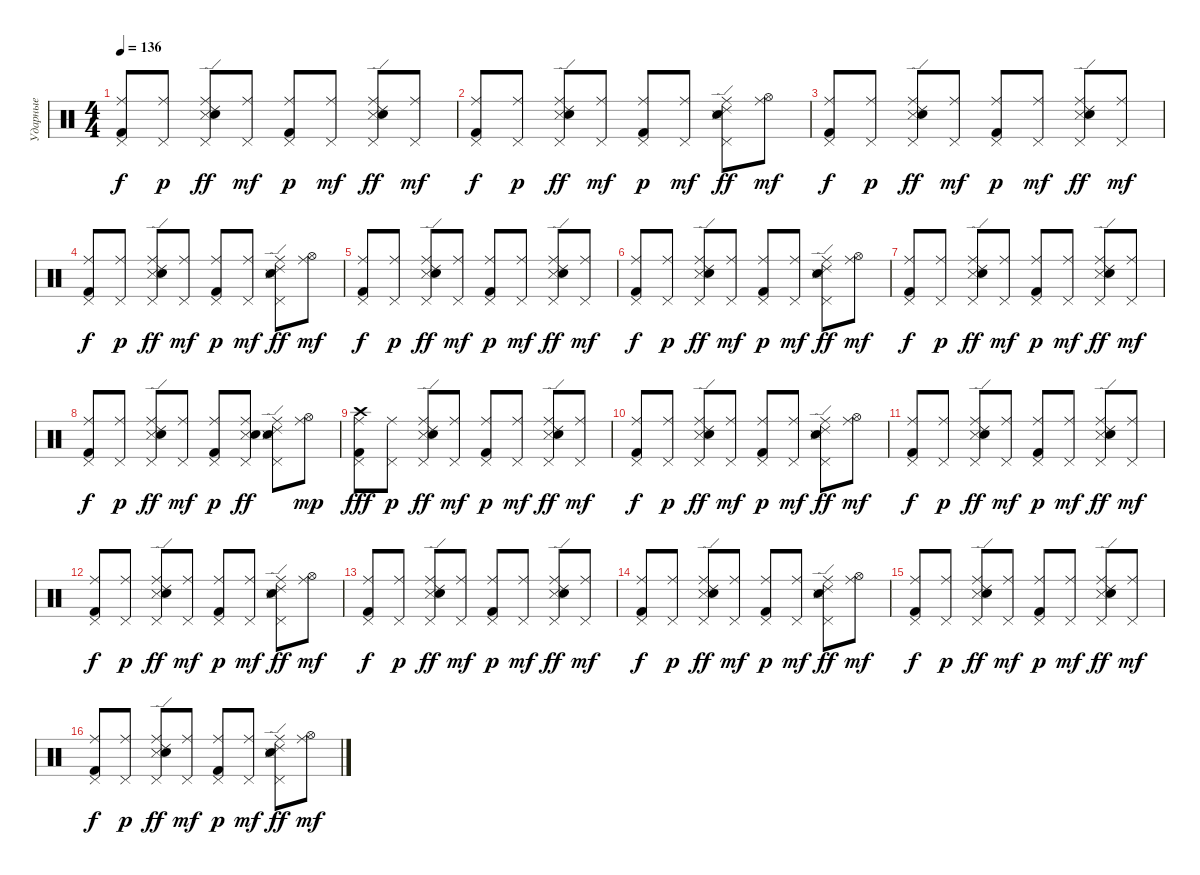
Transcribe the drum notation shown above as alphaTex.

\track ("Ударные" "Ударные") {instrument percussion}
\staff {score}
\articulation defaults
\ts (4 4)
\tempo 136
\clef neutral
\ks c
("Kick (hit) 2" "Ride (middle)" "Pedal Hi-Hat (hit)").8{dy f} ("Ride (middle)" "Pedal Hi-Hat (hit)").8{dy p} ("Ride (edge) 2" "Ride (middle)" "Pedal Hi-Hat (hit)" "Snare (side stick) 3" "Electric Snare (hit)").8{dy ff} ("Ride (middle)" "Pedal Hi-Hat (hit)").8{dy mf} ("Kick (hit) 2" "Ride (middle)" "Pedal Hi-Hat (hit)").8{dy p} ("Ride (middle)" "Pedal Hi-Hat (hit)").8{dy mf} ("Ride (edge) 2" "Ride (middle)" "Pedal Hi-Hat (hit)" "Snare (side stick) 3" "Electric Snare (hit)").8{dy ff} ("Ride (middle)" "Pedal Hi-Hat (hit)").8{dy mf} |
("Kick (hit) 2" "Ride (middle)" "Pedal Hi-Hat (hit)").8{dy f} ("Ride (middle)" "Pedal Hi-Hat (hit)").8{dy p} ("Ride (edge) 2" "Ride (middle)" "Pedal Hi-Hat (hit)" "Snare (side stick) 3" "Electric Snare (hit)").8{dy ff} ("Ride (middle)" "Pedal Hi-Hat (hit)").8{dy mf} ("Kick (hit) 2" "Ride (middle)" "Pedal Hi-Hat (hit)").8{dy p} ("Ride (middle)" "Pedal Hi-Hat (hit)").8{dy mf} ("Ride (edge) 2" "Ride (middle)" "Pedal Hi-Hat (hit)" "Snare (side stick) 3" "Electric Snare (hit)").8{dy ff} ("Ride (middle)" "Hi-Hat (open)").8{dy mf} |
("Kick (hit) 2" "Ride (middle)" "Pedal Hi-Hat (hit)").8{dy f} ("Ride (middle)" "Pedal Hi-Hat (hit)").8{dy p} ("Ride (edge) 2" "Ride (middle)" "Pedal Hi-Hat (hit)" "Snare (side stick) 3" "Electric Snare (hit)").8{dy ff} ("Ride (middle)" "Pedal Hi-Hat (hit)").8{dy mf} ("Kick (hit) 2" "Ride (middle)" "Pedal Hi-Hat (hit)").8{dy p} ("Ride (middle)" "Pedal Hi-Hat (hit)").8{dy mf} ("Ride (edge) 2" "Ride (middle)" "Pedal Hi-Hat (hit)" "Snare (side stick) 3" "Electric Snare (hit)").8{dy ff} ("Ride (middle)" "Pedal Hi-Hat (hit)").8{dy mf} |
("Kick (hit) 2" "Ride (middle)" "Pedal Hi-Hat (hit)").8{dy f} ("Ride (middle)" "Pedal Hi-Hat (hit)").8{dy p} ("Ride (edge) 2" "Ride (middle)" "Pedal Hi-Hat (hit)" "Snare (side stick) 3" "Electric Snare (hit)").8{dy ff} ("Ride (middle)" "Pedal Hi-Hat (hit)").8{dy mf} ("Kick (hit) 2" "Ride (middle)" "Pedal Hi-Hat (hit)").8{dy p} ("Ride (middle)" "Pedal Hi-Hat (hit)").8{dy mf} ("Ride (edge) 2" "Ride (middle)" "Pedal Hi-Hat (hit)" "Snare (side stick) 3" "Electric Snare (hit)").8{dy ff} ("Ride (middle)" "Hi-Hat (open)").8{dy mf} |
("Kick (hit) 2" "Ride (middle)" "Pedal Hi-Hat (hit)").8{dy f} ("Ride (middle)" "Pedal Hi-Hat (hit)").8{dy p} ("Ride (edge) 2" "Ride (middle)" "Pedal Hi-Hat (hit)" "Snare (side stick) 3" "Electric Snare (hit)").8{dy ff} ("Ride (middle)" "Pedal Hi-Hat (hit)").8{dy mf} ("Kick (hit) 2" "Ride (middle)" "Pedal Hi-Hat (hit)").8{dy p} ("Ride (middle)" "Pedal Hi-Hat (hit)").8{dy mf} ("Ride (edge) 2" "Ride (middle)" "Pedal Hi-Hat (hit)" "Snare (side stick) 3" "Electric Snare (hit)").8{dy ff} ("Ride (middle)" "Pedal Hi-Hat (hit)").8{dy mf} |
("Kick (hit) 2" "Ride (middle)" "Pedal Hi-Hat (hit)").8{dy f} ("Ride (middle)" "Pedal Hi-Hat (hit)").8{dy p} ("Ride (edge) 2" "Ride (middle)" "Pedal Hi-Hat (hit)" "Snare (side stick) 3" "Electric Snare (hit)").8{dy ff} ("Ride (middle)" "Pedal Hi-Hat (hit)").8{dy mf} ("Kick (hit) 2" "Ride (middle)" "Pedal Hi-Hat (hit)").8{dy p} ("Ride (middle)" "Pedal Hi-Hat (hit)").8{dy mf} ("Ride (edge) 2" "Ride (middle)" "Pedal Hi-Hat (hit)" "Snare (side stick) 3" "Electric Snare (hit)").8{dy ff} ("Ride (middle)" "Hi-Hat (open)").8{dy mf} |
("Kick (hit) 2" "Ride (middle)" "Pedal Hi-Hat (hit)").8{dy f} ("Ride (middle)" "Pedal Hi-Hat (hit)").8{dy p} ("Ride (edge) 2" "Ride (middle)" "Pedal Hi-Hat (hit)" "Snare (side stick) 3" "Electric Snare (hit)").8{dy ff} ("Ride (middle)" "Pedal Hi-Hat (hit)").8{dy mf} ("Kick (hit) 2" "Ride (middle)" "Pedal Hi-Hat (hit)").8{dy p} ("Ride (middle)" "Pedal Hi-Hat (hit)").8{dy mf} ("Ride (edge) 2" "Ride (middle)" "Pedal Hi-Hat (hit)" "Snare (side stick) 3" "Electric Snare (hit)").8{dy ff} ("Ride (middle)" "Pedal Hi-Hat (hit)").8{dy mf} |
("Kick (hit) 2" "Ride (middle)" "Pedal Hi-Hat (hit)").8{dy f} ("Ride (middle)" "Pedal Hi-Hat (hit)").8{dy p} ("Ride (edge) 2" "Ride (middle)" "Pedal Hi-Hat (hit)" "Snare (side stick) 3" "Electric Snare (hit)").8{dy ff} ("Ride (middle)" "Pedal Hi-Hat (hit)").8{dy mf} ("Kick (hit) 2" "Ride (middle)" "Pedal Hi-Hat (hit)").8{dy p} ("Ride (middle)" "Pedal Hi-Hat (hit)" "Snare (side stick) 3" "Electric Snare (hit)").8{dy ff} ("Ride (edge) 2" "Ride (middle)" "Pedal Hi-Hat (hit)" "Snare (side stick) 3" "Electric Snare (hit)").8 ("Ride (middle)" "Hi-Hat (open)").8{dy mp} |
\section ("" " ")
("Kick (hit) 2" "Ride (middle)" "Pedal Hi-Hat (hit)" "Crash high (hit)").8{dy fff} ("Ride (middle)" "Pedal Hi-Hat (hit)").8{dy p} ("Ride (edge) 2" "Ride (middle)" "Pedal Hi-Hat (hit)" "Snare (side stick) 3" "Electric Snare (hit)").8{dy ff} ("Ride (middle)" "Pedal Hi-Hat (hit)").8{dy mf} ("Kick (hit) 2" "Ride (middle)" "Pedal Hi-Hat (hit)").8{dy p} ("Ride (middle)" "Pedal Hi-Hat (hit)").8{dy mf} ("Ride (edge) 2" "Ride (middle)" "Pedal Hi-Hat (hit)" "Snare (side stick) 3" "Electric Snare (hit)").8{dy ff} ("Ride (middle)" "Pedal Hi-Hat (hit)").8{dy mf} |
("Kick (hit) 2" "Ride (middle)" "Pedal Hi-Hat (hit)").8{dy f} ("Ride (middle)" "Pedal Hi-Hat (hit)").8{dy p} ("Ride (edge) 2" "Ride (middle)" "Pedal Hi-Hat (hit)" "Snare (side stick) 3" "Electric Snare (hit)").8{dy ff} ("Ride (middle)" "Pedal Hi-Hat (hit)").8{dy mf} ("Kick (hit) 2" "Ride (middle)" "Pedal Hi-Hat (hit)").8{dy p} ("Ride (middle)" "Pedal Hi-Hat (hit)").8{dy mf} ("Ride (edge) 2" "Ride (middle)" "Pedal Hi-Hat (hit)" "Snare (side stick) 3" "Electric Snare (hit)").8{dy ff} ("Ride (middle)" "Hi-Hat (open)").8{dy mf} |
("Kick (hit) 2" "Ride (middle)" "Pedal Hi-Hat (hit)").8{dy f} ("Ride (middle)" "Pedal Hi-Hat (hit)").8{dy p} ("Ride (edge) 2" "Ride (middle)" "Pedal Hi-Hat (hit)" "Snare (side stick) 3" "Electric Snare (hit)").8{dy ff} ("Ride (middle)" "Pedal Hi-Hat (hit)").8{dy mf} ("Kick (hit) 2" "Ride (middle)" "Pedal Hi-Hat (hit)").8{dy p} ("Ride (middle)" "Pedal Hi-Hat (hit)").8{dy mf} ("Ride (edge) 2" "Ride (middle)" "Pedal Hi-Hat (hit)" "Snare (side stick) 3" "Electric Snare (hit)").8{dy ff} ("Ride (middle)" "Pedal Hi-Hat (hit)").8{dy mf} |
("Kick (hit) 2" "Ride (middle)" "Pedal Hi-Hat (hit)").8{dy f} ("Ride (middle)" "Pedal Hi-Hat (hit)").8{dy p} ("Ride (edge) 2" "Ride (middle)" "Pedal Hi-Hat (hit)" "Snare (side stick) 3" "Electric Snare (hit)").8{dy ff} ("Ride (middle)" "Pedal Hi-Hat (hit)").8{dy mf} ("Kick (hit) 2" "Ride (middle)" "Pedal Hi-Hat (hit)").8{dy p} ("Ride (middle)" "Pedal Hi-Hat (hit)").8{dy mf} ("Ride (edge) 2" "Ride (middle)" "Pedal Hi-Hat (hit)" "Snare (side stick) 3" "Electric Snare (hit)").8{dy ff} ("Ride (middle)" "Hi-Hat (open)").8{dy mf} |
("Kick (hit) 2" "Ride (middle)" "Pedal Hi-Hat (hit)").8{dy f} ("Ride (middle)" "Pedal Hi-Hat (hit)").8{dy p} ("Ride (edge) 2" "Ride (middle)" "Pedal Hi-Hat (hit)" "Snare (side stick) 3" "Electric Snare (hit)").8{dy ff} ("Ride (middle)" "Pedal Hi-Hat (hit)").8{dy mf} ("Kick (hit) 2" "Ride (middle)" "Pedal Hi-Hat (hit)").8{dy p} ("Ride (middle)" "Pedal Hi-Hat (hit)").8{dy mf} ("Ride (edge) 2" "Ride (middle)" "Pedal Hi-Hat (hit)" "Snare (side stick) 3" "Electric Snare (hit)").8{dy ff} ("Ride (middle)" "Pedal Hi-Hat (hit)").8{dy mf} |
("Kick (hit) 2" "Ride (middle)" "Pedal Hi-Hat (hit)").8{dy f} ("Ride (middle)" "Pedal Hi-Hat (hit)").8{dy p} ("Ride (edge) 2" "Ride (middle)" "Pedal Hi-Hat (hit)" "Snare (side stick) 3" "Electric Snare (hit)").8{dy ff} ("Ride (middle)" "Pedal Hi-Hat (hit)").8{dy mf} ("Kick (hit) 2" "Ride (middle)" "Pedal Hi-Hat (hit)").8{dy p} ("Ride (middle)" "Pedal Hi-Hat (hit)").8{dy mf} ("Ride (edge) 2" "Ride (middle)" "Pedal Hi-Hat (hit)" "Snare (side stick) 3" "Electric Snare (hit)").8{dy ff} ("Ride (middle)" "Hi-Hat (open)").8{dy mf} |
("Kick (hit) 2" "Ride (middle)" "Pedal Hi-Hat (hit)").8{dy f} ("Ride (middle)" "Pedal Hi-Hat (hit)").8{dy p} ("Ride (edge) 2" "Ride (middle)" "Pedal Hi-Hat (hit)" "Snare (side stick) 3" "Electric Snare (hit)").8{dy ff} ("Ride (middle)" "Pedal Hi-Hat (hit)").8{dy mf} ("Kick (hit) 2" "Ride (middle)" "Pedal Hi-Hat (hit)").8{dy p} ("Ride (middle)" "Pedal Hi-Hat (hit)").8{dy mf} ("Ride (edge) 2" "Ride (middle)" "Pedal Hi-Hat (hit)" "Snare (side stick) 3" "Electric Snare (hit)").8{dy ff} ("Ride (middle)" "Pedal Hi-Hat (hit)").8{dy mf} |
("Kick (hit) 2" "Ride (middle)" "Pedal Hi-Hat (hit)").8{dy f} ("Ride (middle)" "Pedal Hi-Hat (hit)").8{dy p} ("Ride (edge) 2" "Ride (middle)" "Pedal Hi-Hat (hit)" "Snare (side stick) 3" "Electric Snare (hit)").8{dy ff} ("Ride (middle)" "Pedal Hi-Hat (hit)").8{dy mf} ("Kick (hit) 2" "Ride (middle)" "Pedal Hi-Hat (hit)").8{dy p} ("Ride (middle)" "Pedal Hi-Hat (hit)").8{dy mf} ("Ride (edge) 2" "Ride (middle)" "Pedal Hi-Hat (hit)" "Snare (side stick) 3" "Electric Snare (hit)").8{dy ff} ("Ride (middle)" "Hi-Hat (open)").8{dy mf}
